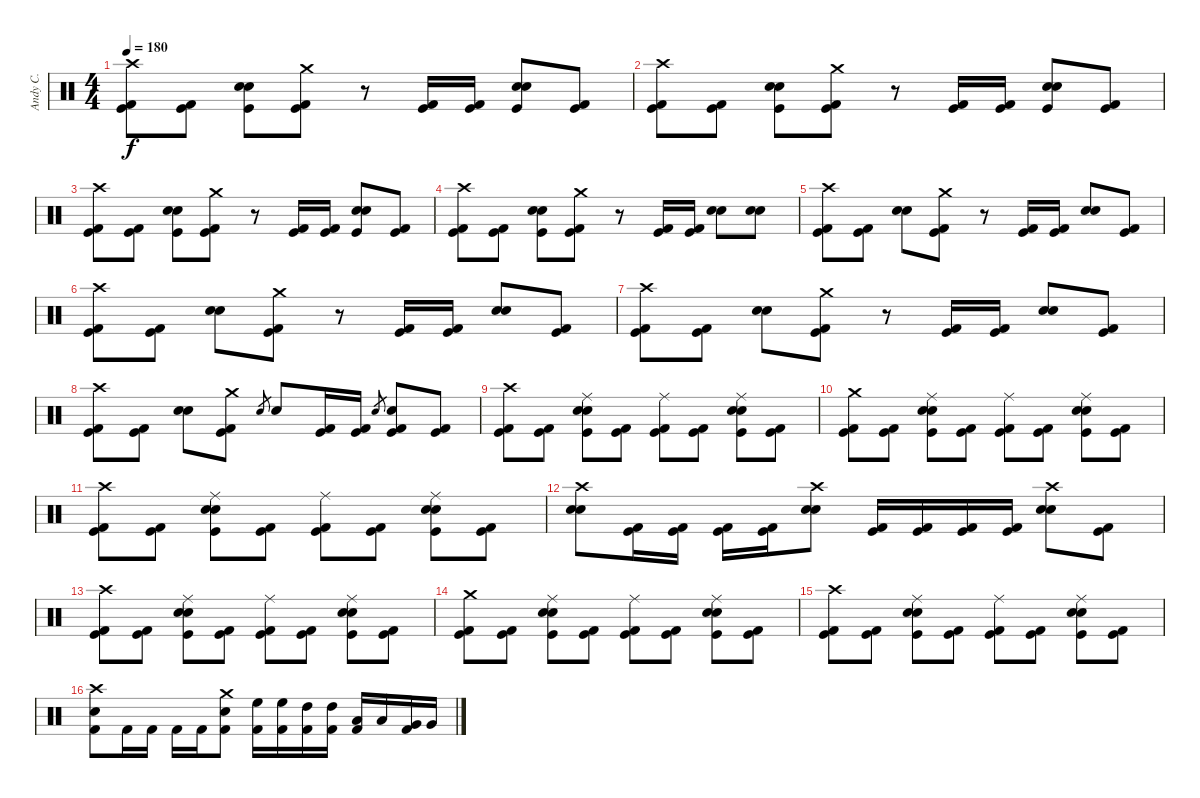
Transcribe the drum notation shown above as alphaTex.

\track ("Andy C." "Andy C.") {instrument percussion}
\staff {score}
\articulation defaults
\ts (4 4)
\tempo 180
\clef neutral
\ks c
("Crash high (hit)" "Kick (hit)" "Kick (hit) 2").8{dy f} ("Kick (hit)" "Kick (hit) 2").8 ("Kick (hit)" "Snare (hit) 2" "Electric Snare (hit)").8 ("Crash medium (hit)" "Kick (hit)" "Kick (hit) 2").8 r.8 ("Kick (hit)" "Kick (hit) 2").16 ("Kick (hit)" "Kick (hit) 2").16 ("Kick (hit)" "Electric Snare (hit)" "Snare (hit) 2").8 ("Kick (hit)" "Kick (hit) 2").8 |
("Crash high (hit)" "Kick (hit)" "Kick (hit) 2").8 ("Kick (hit)" "Kick (hit) 2").8 ("Kick (hit)" "Snare (hit) 2" "Electric Snare (hit)").8 ("Crash medium (hit)" "Kick (hit)" "Kick (hit) 2").8 r.8 ("Kick (hit)" "Kick (hit) 2").16 ("Kick (hit)" "Kick (hit) 2").16 ("Kick (hit)" "Electric Snare (hit)" "Snare (hit) 2").8 ("Kick (hit)" "Kick (hit) 2").8 |
("Crash high (hit)" "Kick (hit)" "Kick (hit) 2").8 ("Kick (hit)" "Kick (hit) 2").8 ("Kick (hit)" "Snare (hit) 2" "Electric Snare (hit)").8 ("Crash medium (hit)" "Kick (hit)" "Kick (hit) 2").8 r.8 ("Kick (hit)" "Kick (hit) 2").16 ("Kick (hit)" "Kick (hit) 2").16 ("Kick (hit)" "Electric Snare (hit)" "Snare (hit) 2").8 ("Kick (hit)" "Kick (hit) 2").8 |
("Crash high (hit)" "Kick (hit)" "Kick (hit) 2").8 ("Kick (hit)" "Kick (hit) 2").8 ("Kick (hit)" "Electric Snare (hit)" "Snare (hit) 2").8 ("Crash medium (hit)" "Kick (hit)" "Kick (hit) 2").8 r.8 ("Kick (hit)" "Kick (hit) 2").16 ("Kick (hit)" "Kick (hit) 2").16 ("Electric Snare (hit)" "Snare (hit) 2").8 ("Electric Snare (hit)" "Snare (hit) 2").8 |
("Crash high (hit)" "Kick (hit)" "Kick (hit) 2").8 ("Kick (hit)" "Kick (hit) 2").8 ("Snare (hit) 2" "Electric Snare (hit)").8 ("Crash medium (hit)" "Kick (hit)" "Kick (hit) 2").8 r.8 ("Kick (hit)" "Kick (hit) 2").16 ("Kick (hit)" "Kick (hit) 2").16 ("Electric Snare (hit)" "Snare (hit) 2").8 ("Kick (hit)" "Kick (hit) 2").8 |
("Crash high (hit)" "Kick (hit)" "Kick (hit) 2").8 ("Kick (hit)" "Kick (hit) 2").8 ("Snare (hit) 2" "Electric Snare (hit)").8 ("Crash medium (hit)" "Kick (hit)" "Kick (hit) 2").8 r.8 ("Kick (hit)" "Kick (hit) 2").16 ("Kick (hit)" "Kick (hit) 2").16 ("Electric Snare (hit)" "Snare (hit) 2").8 ("Kick (hit)" "Kick (hit) 2").8 |
("Crash high (hit)" "Kick (hit)" "Kick (hit) 2").8 ("Kick (hit)" "Kick (hit) 2").8 ("Snare (hit) 2" "Electric Snare (hit)").8 ("Crash medium (hit)" "Kick (hit)" "Kick (hit) 2").8 r.8 ("Kick (hit)" "Kick (hit) 2").16 ("Kick (hit)" "Kick (hit) 2").16 ("Electric Snare (hit)" "Snare (hit) 2").8 ("Kick (hit)" "Kick (hit) 2").8 |
("Crash high (hit)" "Kick (hit)" "Kick (hit) 2").8 ("Kick (hit)" "Kick (hit) 2").8 ("Electric Snare (hit)" "Snare (hit) 2").8 ("Crash medium (hit)" "Kick (hit)" "Kick (hit) 2").8 "Electric Snare (hit)".8{gr} "Electric Snare (hit)".8 ("Kick (hit)" "Kick (hit) 2").16 ("Kick (hit)" "Kick (hit) 2").16 "Electric Snare (hit)".8{gr} ("Electric Snare (hit)" "Kick (hit)" "Kick (hit) 2").8 ("Kick (hit)" "Kick (hit) 2").8 |
("Crash high (hit)" "Kick (hit)" "Kick (hit) 2").8 ("Kick (hit)" "Kick (hit) 2").8 ("Ride (middle)" "Kick (hit)" "Snare (hit) 2" "Electric Snare (hit)").8 ("Kick (hit)" "Kick (hit) 2").8 ("Ride (middle)" "Kick (hit)" "Kick (hit) 2").8 ("Kick (hit)" "Kick (hit) 2").8 ("Ride (middle)" "Kick (hit)" "Snare (hit) 2" "Electric Snare (hit)").8 ("Kick (hit)" "Kick (hit) 2").8 |
("Crash medium (hit)" "Kick (hit)" "Kick (hit) 2").8 ("Kick (hit)" "Kick (hit) 2").8 ("Ride (middle)" "Kick (hit)" "Snare (hit) 2" "Electric Snare (hit)").8 ("Kick (hit)" "Kick (hit) 2").8 ("Ride (middle)" "Kick (hit)" "Kick (hit) 2").8 ("Kick (hit)" "Kick (hit) 2").8 ("Ride (middle)" "Kick (hit)" "Snare (hit) 2" "Electric Snare (hit)").8 ("Kick (hit)" "Kick (hit) 2").8 |
("Crash high (hit)" "Kick (hit)" "Kick (hit) 2").8 ("Kick (hit)" "Kick (hit) 2").8 ("Ride (middle)" "Kick (hit)" "Snare (hit) 2" "Electric Snare (hit)").8 ("Kick (hit)" "Kick (hit) 2").8 ("Ride (middle)" "Kick (hit)" "Kick (hit) 2").8 ("Kick (hit)" "Kick (hit) 2").8 ("Ride (middle)" "Kick (hit)" "Snare (hit) 2" "Electric Snare (hit)").8 ("Kick (hit)" "Kick (hit) 2").8 |
("Crash high (hit)" "Electric Snare (hit)" "Snare (hit) 2").8 ("Kick (hit)" "Kick (hit) 2").16 ("Kick (hit)" "Kick (hit) 2").16 ("Kick (hit)" "Kick (hit) 2").16 ("Kick (hit)" "Kick (hit) 2").16 ("Crash high (hit)" "Electric Snare (hit)" "Snare (hit) 2").8 ("Kick (hit)" "Kick (hit) 2").16 ("Kick (hit)" "Kick (hit) 2").16 ("Kick (hit)" "Kick (hit) 2").16 ("Kick (hit)" "Kick (hit) 2").16 ("Crash high (hit)" "Snare (hit) 2" "Electric Snare (hit)").8 ("Kick (hit)" "Kick (hit) 2").8 |
("Crash high (hit)" "Kick (hit)" "Kick (hit) 2").8 ("Kick (hit)" "Kick (hit) 2").8 ("Ride (middle)" "Kick (hit)" "Snare (hit) 2" "Electric Snare (hit)").8 ("Kick (hit)" "Kick (hit) 2").8 ("Ride (middle)" "Kick (hit)" "Kick (hit) 2").8 ("Kick (hit)" "Kick (hit) 2").8 ("Ride (middle)" "Kick (hit)" "Snare (hit) 2" "Electric Snare (hit)").8 ("Kick (hit)" "Kick (hit) 2").8 |
("Crash medium (hit)" "Kick (hit)" "Kick (hit) 2").8 ("Kick (hit)" "Kick (hit) 2").8 ("Ride (middle)" "Kick (hit)" "Snare (hit) 2" "Electric Snare (hit)").8 ("Kick (hit)" "Kick (hit) 2").8 ("Ride (middle)" "Kick (hit)" "Kick (hit) 2").8 ("Kick (hit)" "Kick (hit) 2").8 ("Ride (middle)" "Kick (hit)" "Snare (hit) 2" "Electric Snare (hit)").8 ("Kick (hit)" "Kick (hit) 2").8 |
("Crash high (hit)" "Kick (hit)" "Kick (hit) 2").8 ("Kick (hit)" "Kick (hit) 2").8 ("Ride (middle)" "Kick (hit)" "Snare (hit) 2" "Electric Snare (hit)").8 ("Kick (hit)" "Kick (hit) 2").8 ("Ride (middle)" "Kick (hit)" "Kick (hit) 2").8 ("Kick (hit)" "Kick (hit) 2").8 ("Ride (middle)" "Kick (hit)" "Snare (hit) 2" "Electric Snare (hit)").8 ("Kick (hit)" "Kick (hit) 2").8 |
("Crash high (hit)" "Electric Snare (hit)" "Kick (hit) 2").8 "Kick (hit) 2".16 "Kick (hit) 2".16 "Kick (hit) 2".16 "Kick (hit) 2".16 ("Crash medium (hit)" "Electric Snare (hit)" "Kick (hit) 2").8 ("High Floor Tom (hit)" "Kick (hit) 2").16 ("High Floor Tom (hit)" "Kick (hit) 2").16 ("High Tom (hit)" "Kick (hit) 2").16 ("High Tom (hit)" "Kick (hit) 2").16 ("Low Tom (hit)" "Kick (hit) 2").16 "Low Tom (hit)".16 ("Very Low Tom (hit)" "Kick (hit) 2").16 "Very Low Tom (hit)".16
